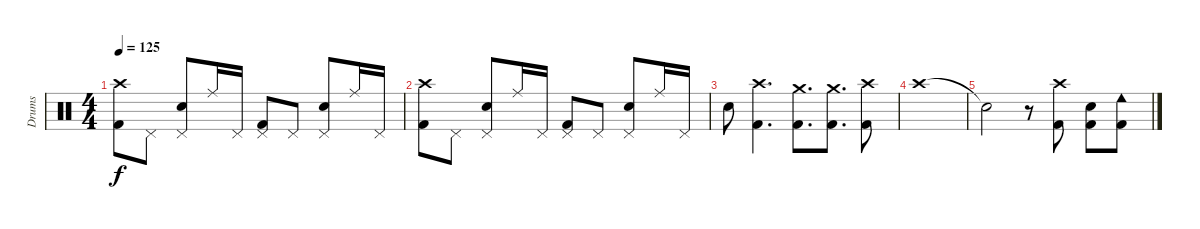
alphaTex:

\track ("Drums" "Drums") {instrument percussion}
\staff {score}
\articulation defaults
\ts (4 4)
\tempo 125
\clef neutral
\ks c
("Crash high (hit)" "Kick (hit) 2").8{dy f} "Pedal Hi-Hat (hit)".8 ("Pedal Hi-Hat (hit)" "Snare (hit) 2").8 "Ride (middle)".16 "Pedal Hi-Hat (hit)".16 ("Pedal Hi-Hat (hit)" "Kick (hit) 2").8 "Pedal Hi-Hat (hit)".8 ("Pedal Hi-Hat (hit)" "Snare (hit) 2").8 "Ride (middle)".16 "Pedal Hi-Hat (hit)".16 |
("Crash high (hit)" "Kick (hit) 2").8 "Pedal Hi-Hat (hit)".8 ("Pedal Hi-Hat (hit)" "Snare (hit) 2").8 "Ride (middle)".16 "Pedal Hi-Hat (hit)".16 ("Pedal Hi-Hat (hit)" "Kick (hit) 2").8 "Pedal Hi-Hat (hit)".8 ("Pedal Hi-Hat (hit)" "Snare (hit) 2").8 "Ride (middle)".16 "Pedal Hi-Hat (hit)".16 |
"Snare (hit) 2".8 ("Crash high (hit)" "Kick (hit) 2").4{d} ("Kick (hit) 2" "Crash medium (hit)").8{d} ("Kick (hit) 2" "Crash medium (hit)").8{d} ("Crash high (hit)" "Kick (hit) 2").8 |
"Crash high (hit)".1 |
"Snare (hit)"{t}.2 r.8 ("Kick (hit) 2" "Crash high (hit)").8 ("Snare (hit) 2" "Kick (hit) 2").8 ("Kick (hit) 2" "Cowbell low (hit)").8
